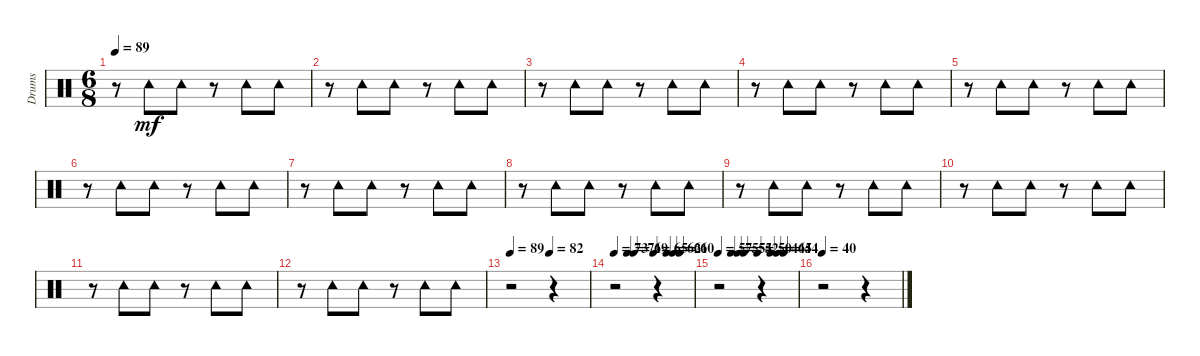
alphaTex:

\track ("Drums" "Drums") {instrument percussion}
\staff {score}
\articulation defaults
\ts (6 8)
\tempo 89
\clef neutral
\ks c
r.8{dy mf} "Tambourine (hit)".8 "Tambourine (hit)".8 r.8 "Tambourine (hit)".8 "Tambourine (hit)".8 |
r.8 "Tambourine (hit)".8 "Tambourine (hit)".8 r.8 "Tambourine (hit)".8 "Tambourine (hit)".8 |
r.8 "Tambourine (hit)".8 "Tambourine (hit)".8 r.8 "Tambourine (hit)".8 "Tambourine (hit)".8 |
r.8 "Tambourine (hit)".8 "Tambourine (hit)".8 r.8 "Tambourine (hit)".8 "Tambourine (hit)".8 |
r.8 "Tambourine (hit)".8 "Tambourine (hit)".8 r.8 "Tambourine (hit)".8 "Tambourine (hit)".8 |
r.8 "Tambourine (hit)".8 "Tambourine (hit)".8 r.8 "Tambourine (hit)".8 "Tambourine (hit)".8 |
r.8 "Tambourine (hit)".8 "Tambourine (hit)".8 r.8 "Tambourine (hit)".8 "Tambourine (hit)".8 |
r.8 "Tambourine (hit)".8 "Tambourine (hit)".8 r.8 "Tambourine (hit)".8 "Tambourine (hit)".8 |
r.8 "Tambourine (hit)".8 "Tambourine (hit)".8 r.8 "Tambourine (hit)".8 "Tambourine (hit)".8 |
r.8 "Tambourine (hit)".8 "Tambourine (hit)".8 r.8 "Tambourine (hit)".8 "Tambourine (hit)".8 |
r.8 "Tambourine (hit)".8 "Tambourine (hit)".8 r.8 "Tambourine (hit)".8 "Tambourine (hit)".8 |
r.8 "Tambourine (hit)".8 "Tambourine (hit)".8 r.8 "Tambourine (hit)".8 "Tambourine (hit)".8 |
\tempo 89
\tempo (82 0.5)
r.2 r.4 |
\tempo 73
\tempo (71 0.16666666666666666)
\tempo (69 0.25)
\tempo (65 0.5)
\tempo (62 0.6666666666666666)
\tempo (61 0.75)
\tempo (60 0.8333333333333334)
r.2 r.4 |
\tempo 57
\tempo (55 0.16666666666666666)
\tempo (54 0.25)
\tempo (52 0.3333333333333333)
\tempo (50 0.5)
\tempo (46 0.6666666666666666)
\tempo (45 0.75)
\tempo (44 0.8333333333333334)
r.2 r.4 |
\tempo 40
r.2 r.4
